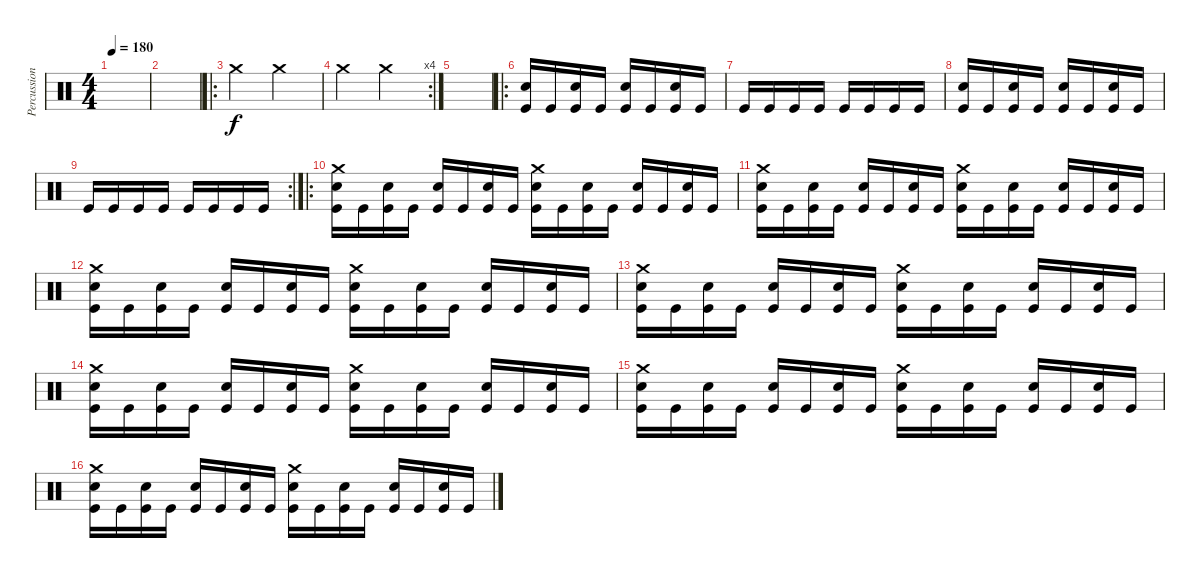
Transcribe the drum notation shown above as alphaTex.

\track ("Percussion" "Percussion") {instrument percussion}
\staff {score}
\articulation defaults
\ts (4 4)
\tempo 180
\clef neutral
\ks c
|
|
\ro "Crash medium (hit)".2 "Crash medium (hit)".2
|
\rc 4 "Crash medium (hit)".2 "Crash medium (hit)".2
|
|
\ro
("Kick (hit)" "Electric Snare (hit)").16 "Kick (hit)".16 ("Kick (hit)" "Electric Snare (hit)").16 "Kick (hit)".16 ("Kick (hit)" "Electric Snare (hit)").16 "Kick (hit)".16 ("Kick (hit)" "Electric Snare (hit)").16 "Kick (hit)".16 |
"Kick (hit)".16 "Kick (hit)".16 "Kick (hit)".16 "Kick (hit)".16 "Kick (hit)".16 "Kick (hit)".16 "Kick (hit)".16 "Kick (hit)".16 |
("Kick (hit)" "Electric Snare (hit)").16 "Kick (hit)".16 ("Kick (hit)" "Electric Snare (hit)").16 "Kick (hit)".16 ("Kick (hit)" "Electric Snare (hit)").16 "Kick (hit)".16 ("Kick (hit)" "Electric Snare (hit)").16 "Kick (hit)".16 |
\rc 2 "Kick (hit)".16 "Kick (hit)".16 "Kick (hit)".16 "Kick (hit)".16 "Kick (hit)".16 "Kick (hit)".16 "Kick (hit)".16 "Kick (hit)".16
|
\ro
("Kick (hit)" "Electric Snare (hit)" "Crash medium (hit)").16 "Kick (hit)".16 ("Kick (hit)" "Electric Snare (hit)").16 "Kick (hit)".16 ("Kick (hit)" "Electric Snare (hit)").16 "Kick (hit)".16 ("Kick (hit)" "Electric Snare (hit)").16 "Kick (hit)".16 ("Kick (hit)" "Electric Snare (hit)" "Crash medium (hit)").16 "Kick (hit)".16 ("Kick (hit)" "Electric Snare (hit)").16 "Kick (hit)".16 ("Kick (hit)" "Electric Snare (hit)").16 "Kick (hit)".16 ("Kick (hit)" "Electric Snare (hit)").16 "Kick (hit)".16 |
("Kick (hit)" "Electric Snare (hit)" "Crash medium (hit)").16 "Kick (hit)".16 ("Kick (hit)" "Electric Snare (hit)").16 "Kick (hit)".16 ("Kick (hit)" "Electric Snare (hit)").16 "Kick (hit)".16 ("Kick (hit)" "Electric Snare (hit)").16 "Kick (hit)".16 ("Kick (hit)" "Electric Snare (hit)" "Crash medium (hit)").16 "Kick (hit)".16 ("Kick (hit)" "Electric Snare (hit)").16 "Kick (hit)".16 ("Kick (hit)" "Electric Snare (hit)").16 "Kick (hit)".16 ("Kick (hit)" "Electric Snare (hit)").16 "Kick (hit)".16 |
("Kick (hit)" "Electric Snare (hit)" "Crash medium (hit)").16 "Kick (hit)".16 ("Kick (hit)" "Electric Snare (hit)").16 "Kick (hit)".16 ("Kick (hit)" "Electric Snare (hit)").16 "Kick (hit)".16 ("Kick (hit)" "Electric Snare (hit)").16 "Kick (hit)".16 ("Kick (hit)" "Electric Snare (hit)" "Crash medium (hit)").16 "Kick (hit)".16 ("Kick (hit)" "Electric Snare (hit)").16 "Kick (hit)".16 ("Kick (hit)" "Electric Snare (hit)").16 "Kick (hit)".16 ("Kick (hit)" "Electric Snare (hit)").16 "Kick (hit)".16 |
("Kick (hit)" "Electric Snare (hit)" "Crash medium (hit)").16 "Kick (hit)".16 ("Kick (hit)" "Electric Snare (hit)").16 "Kick (hit)".16 ("Kick (hit)" "Electric Snare (hit)").16 "Kick (hit)".16 ("Kick (hit)" "Electric Snare (hit)").16 "Kick (hit)".16 ("Kick (hit)" "Electric Snare (hit)" "Crash medium (hit)").16 "Kick (hit)".16 ("Kick (hit)" "Electric Snare (hit)").16 "Kick (hit)".16 ("Kick (hit)" "Electric Snare (hit)").16 "Kick (hit)".16 ("Kick (hit)" "Electric Snare (hit)").16 "Kick (hit)".16 |
("Kick (hit)" "Electric Snare (hit)" "Crash medium (hit)").16 "Kick (hit)".16 ("Kick (hit)" "Electric Snare (hit)").16 "Kick (hit)".16 ("Kick (hit)" "Electric Snare (hit)").16 "Kick (hit)".16 ("Kick (hit)" "Electric Snare (hit)").16 "Kick (hit)".16 ("Kick (hit)" "Electric Snare (hit)" "Crash medium (hit)").16 "Kick (hit)".16 ("Kick (hit)" "Electric Snare (hit)").16 "Kick (hit)".16 ("Kick (hit)" "Electric Snare (hit)").16 "Kick (hit)".16 ("Kick (hit)" "Electric Snare (hit)").16 "Kick (hit)".16 |
("Kick (hit)" "Electric Snare (hit)" "Crash medium (hit)").16 "Kick (hit)".16 ("Kick (hit)" "Electric Snare (hit)").16 "Kick (hit)".16 ("Kick (hit)" "Electric Snare (hit)").16 "Kick (hit)".16 ("Kick (hit)" "Electric Snare (hit)").16 "Kick (hit)".16 ("Kick (hit)" "Electric Snare (hit)" "Crash medium (hit)").16 "Kick (hit)".16 ("Kick (hit)" "Electric Snare (hit)").16 "Kick (hit)".16 ("Kick (hit)" "Electric Snare (hit)").16 "Kick (hit)".16 ("Kick (hit)" "Electric Snare (hit)").16 "Kick (hit)".16 |
("Kick (hit)" "Electric Snare (hit)" "Crash medium (hit)").16 "Kick (hit)".16 ("Kick (hit)" "Electric Snare (hit)").16 "Kick (hit)".16 ("Kick (hit)" "Electric Snare (hit)").16 "Kick (hit)".16 ("Kick (hit)" "Electric Snare (hit)").16 "Kick (hit)".16 ("Kick (hit)" "Electric Snare (hit)" "Crash medium (hit)").16 "Kick (hit)".16 ("Kick (hit)" "Electric Snare (hit)").16 "Kick (hit)".16 ("Kick (hit)" "Electric Snare (hit)").16 "Kick (hit)".16 ("Kick (hit)" "Electric Snare (hit)").16 "Kick (hit)".16
